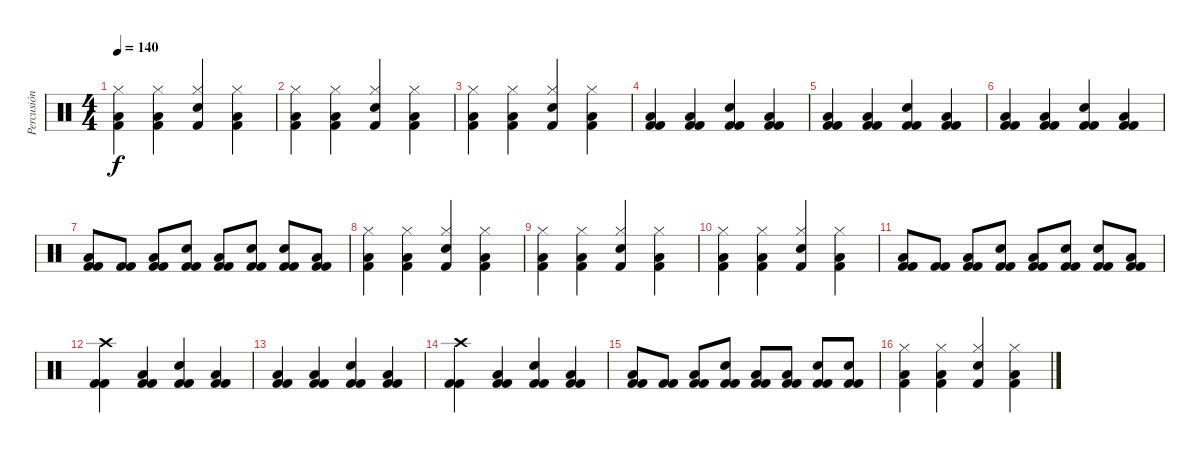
\track ("Percusión" "Percusión") {instrument percussion}
\staff {score}
\articulation defaults
\ts (4 4)
\tempo 140
\clef neutral
\ks c
("Kick (hit) 2" "Low Tom (hit)" "Hi-Hat (closed)").4{dy f} ("Kick (hit) 2" "Low Tom (hit)" "Hi-Hat (closed)").4 ("Kick (hit) 2" "Snare (hit) 2" "Hi-Hat (closed)").4 ("Kick (hit) 2" "Low Tom (hit)" "Hi-Hat (closed)").4 |
("Kick (hit) 2" "Low Tom (hit)" "Hi-Hat (closed)").4 ("Kick (hit) 2" "Low Tom (hit)" "Hi-Hat (closed)").4 ("Kick (hit) 2" "Snare (hit) 2" "Hi-Hat (closed)").4 ("Kick (hit) 2" "Low Tom (hit)" "Hi-Hat (closed)").4 |
("Kick (hit) 2" "Low Tom (hit)" "Hi-Hat (closed)").4 ("Kick (hit) 2" "Low Tom (hit)" "Hi-Hat (closed)").4 ("Kick (hit) 2" "Snare (hit) 2" "Hi-Hat (closed)").4 ("Kick (hit) 2" "Low Tom (hit)" "Hi-Hat (closed)").4 |
("Kick (hit) 2" "Kick (hit) 2" "Low Tom (hit)").4 ("Kick (hit) 2" "Kick (hit) 2" "Low Tom (hit)").4 ("Kick (hit) 2" "Kick (hit) 2" "Snare (hit) 2").4 ("Kick (hit) 2" "Kick (hit) 2" "Low Tom (hit)").4 |
("Kick (hit) 2" "Kick (hit) 2" "Low Tom (hit)").4 ("Kick (hit) 2" "Kick (hit) 2" "Low Tom (hit)").4 ("Kick (hit) 2" "Kick (hit) 2" "Snare (hit) 2").4 ("Kick (hit) 2" "Kick (hit) 2" "Low Tom (hit)").4 |
("Kick (hit) 2" "Kick (hit) 2" "Low Tom (hit)").4 ("Kick (hit) 2" "Kick (hit) 2" "Low Tom (hit)").4 ("Kick (hit) 2" "Kick (hit) 2" "Snare (hit) 2").4 ("Kick (hit) 2" "Kick (hit) 2" "Low Tom (hit)").4 |
("Kick (hit) 2" "Kick (hit) 2" "Low Tom (hit)").8 ("Kick (hit) 2" "Kick (hit) 2").8 ("Kick (hit) 2" "Kick (hit) 2" "Low Tom (hit)").8 ("Kick (hit) 2" "Kick (hit) 2" "Snare (hit) 2").8 ("Kick (hit) 2" "Kick (hit) 2" "Low Tom (hit)").8 ("Kick (hit) 2" "Kick (hit) 2" "Snare (hit) 2").8 ("Kick (hit) 2" "Kick (hit) 2" "Snare (hit) 2").8 ("Kick (hit) 2" "Kick (hit) 2" "Low Tom (hit)").8 |
("Kick (hit) 2" "Low Tom (hit)" "Hi-Hat (closed)").4 ("Kick (hit) 2" "Low Tom (hit)" "Hi-Hat (closed)").4 ("Kick (hit) 2" "Snare (hit) 2" "Hi-Hat (closed)").4 ("Kick (hit) 2" "Low Tom (hit)" "Hi-Hat (closed)").4 |
("Kick (hit) 2" "Low Tom (hit)" "Hi-Hat (closed)").4 ("Kick (hit) 2" "Low Tom (hit)" "Hi-Hat (closed)").4 ("Kick (hit) 2" "Snare (hit) 2" "Hi-Hat (closed)").4 ("Kick (hit) 2" "Low Tom (hit)" "Hi-Hat (closed)").4 |
("Kick (hit) 2" "Low Tom (hit)" "Hi-Hat (closed)").4 ("Kick (hit) 2" "Low Tom (hit)" "Hi-Hat (closed)").4 ("Kick (hit) 2" "Snare (hit) 2" "Hi-Hat (closed)").4 ("Kick (hit) 2" "Low Tom (hit)" "Hi-Hat (closed)").4 |
("Kick (hit) 2" "Kick (hit) 2" "Low Tom (hit)").8 ("Kick (hit) 2" "Kick (hit) 2").8 ("Kick (hit) 2" "Kick (hit) 2" "Low Tom (hit)").8 ("Kick (hit) 2" "Kick (hit) 2" "Snare (hit) 2").8 ("Kick (hit) 2" "Kick (hit) 2" "Low Tom (hit)").8 ("Kick (hit) 2" "Kick (hit) 2" "Snare (hit) 2").8 ("Kick (hit) 2" "Kick (hit) 2" "Snare (hit) 2").8 ("Kick (hit) 2" "Kick (hit) 2" "Low Tom (hit)").8 |
("Kick (hit) 2" "Kick (hit) 2" "Crash high (hit)").4 ("Kick (hit) 2" "Kick (hit) 2" "Low Tom (hit)").4 ("Kick (hit) 2" "Kick (hit) 2" "Snare (hit) 2").4 ("Kick (hit) 2" "Kick (hit) 2" "Low Tom (hit)").4 |
("Kick (hit) 2" "Kick (hit) 2" "Low Tom (hit)").4 ("Kick (hit) 2" "Kick (hit) 2" "Low Tom (hit)").4 ("Kick (hit) 2" "Kick (hit) 2" "Snare (hit) 2").4 ("Kick (hit) 2" "Kick (hit) 2" "Low Tom (hit)").4 |
("Kick (hit) 2" "Kick (hit) 2" "Crash high (hit)").4 ("Kick (hit) 2" "Kick (hit) 2" "Low Tom (hit)").4 ("Kick (hit) 2" "Kick (hit) 2" "Snare (hit) 2").4 ("Kick (hit) 2" "Kick (hit) 2" "Low Tom (hit)").4 |
("Kick (hit) 2" "Kick (hit) 2" "Low Tom (hit)").8 ("Kick (hit) 2" "Kick (hit) 2").8 ("Kick (hit) 2" "Kick (hit) 2" "Low Tom (hit)").8 ("Kick (hit) 2" "Kick (hit) 2" "Snare (hit) 2").8 ("Kick (hit) 2" "Kick (hit) 2" "Low Tom (hit)").8 ("Kick (hit) 2" "Kick (hit) 2" "Low Tom (hit)").8 ("Kick (hit) 2" "Kick (hit) 2" "Snare (hit) 2").8 ("Kick (hit) 2" "Kick (hit) 2" "Snare (hit) 2").8 |
("Kick (hit) 2" "Low Tom (hit)" "Hi-Hat (closed)").4 ("Kick (hit) 2" "Low Tom (hit)" "Hi-Hat (closed)").4 ("Kick (hit) 2" "Snare (hit) 2" "Hi-Hat (closed)").4 ("Kick (hit) 2" "Low Tom (hit)" "Hi-Hat (closed)").4
